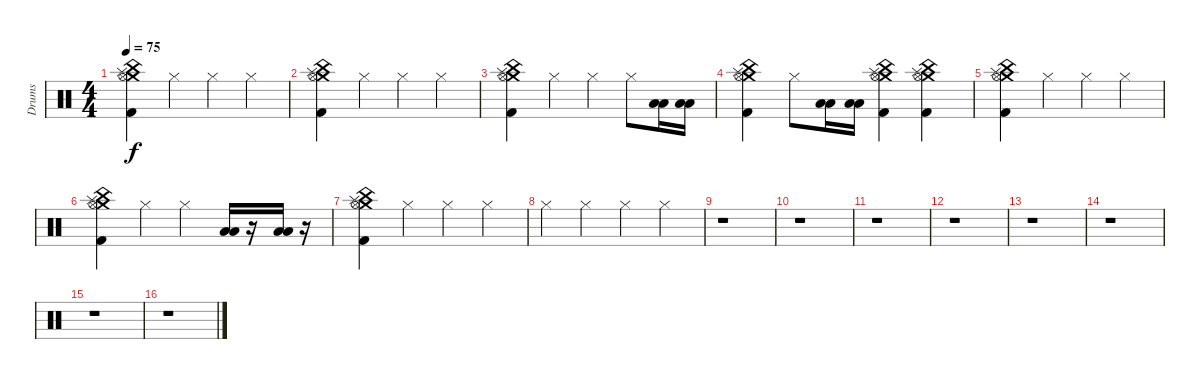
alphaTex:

\track ("Drums" "Drums") {instrument percussion}
\staff {score}
\articulation defaults
\ts (4 4)
\tempo 75
\clef neutral
\ks c
("Splash (hit)" "China (hit)" "Crash medium (hit)" "Hi-Hat (open)" "Kick (hit) 2").4{dy f volume 11} "Hi-Hat (closed)".4 "Hi-Hat (closed)".4 "Hi-Hat (closed)".4 |
("China (hit)" "Splash (hit)" "Crash medium (hit)" "Hi-Hat (open)" "Kick (hit) 2").4 "Hi-Hat (closed)".4 "Hi-Hat (closed)".4 "Hi-Hat (closed)".4 |
("Splash (hit)" "China (hit)" "Crash medium (hit)" "Hi-Hat (open)" "Kick (hit) 2").4 "Hi-Hat (closed)".4 "Hi-Hat (closed)".4 "Hi-Hat (closed)".8 ("Low Tom (hit)" "Low Floor Tom (hit)").16 ("Low Tom (hit)" "Low Floor Tom (hit)").16 |
("Crash medium (hit)" "Splash (hit)" "China (hit)" "Hi-Hat (open)" "Kick (hit) 2").4 "Hi-Hat (closed)".8 ("Low Tom (hit)" "Low Floor Tom (hit)").16 ("Low Tom (hit)" "Low Floor Tom (hit)").16 ("Splash (hit)" "China (hit)" "Crash medium (hit)" "Hi-Hat (open)" "Kick (hit) 2").4 ("Splash (hit)" "China (hit)" "Crash medium (hit)" "Hi-Hat (open)" "Kick (hit) 2").4 |
("China (hit)" "Splash (hit)" "Crash medium (hit)" "Hi-Hat (open)" "Kick (hit) 2").4 "Hi-Hat (closed)".4 "Hi-Hat (closed)".4 "Hi-Hat (closed)".4 |
("Splash (hit)" "China (hit)" "Crash medium (hit)" "Hi-Hat (open)" "Kick (hit) 2").4 "Hi-Hat (closed)".4 "Hi-Hat (closed)".4 ("Low Tom (hit)" "Low Floor Tom (hit)").16 r.16 ("Low Tom (hit)" "Low Floor Tom (hit)").16 r.16 |
("Splash (hit)" "China (hit)" "Crash medium (hit)" "Hi-Hat (open)" "Kick (hit) 2").4 "Hi-Hat (closed)".4 "Hi-Hat (closed)".4 "Hi-Hat (closed)".4 |
"Hi-Hat (closed)".4 "Hi-Hat (closed)".4 "Hi-Hat (closed)".4 "Hi-Hat (closed)".4 |
r.1 |
r.1 |
r.1 |
r.1 |
r.1 |
r.1 |
r.1 |
r.1
